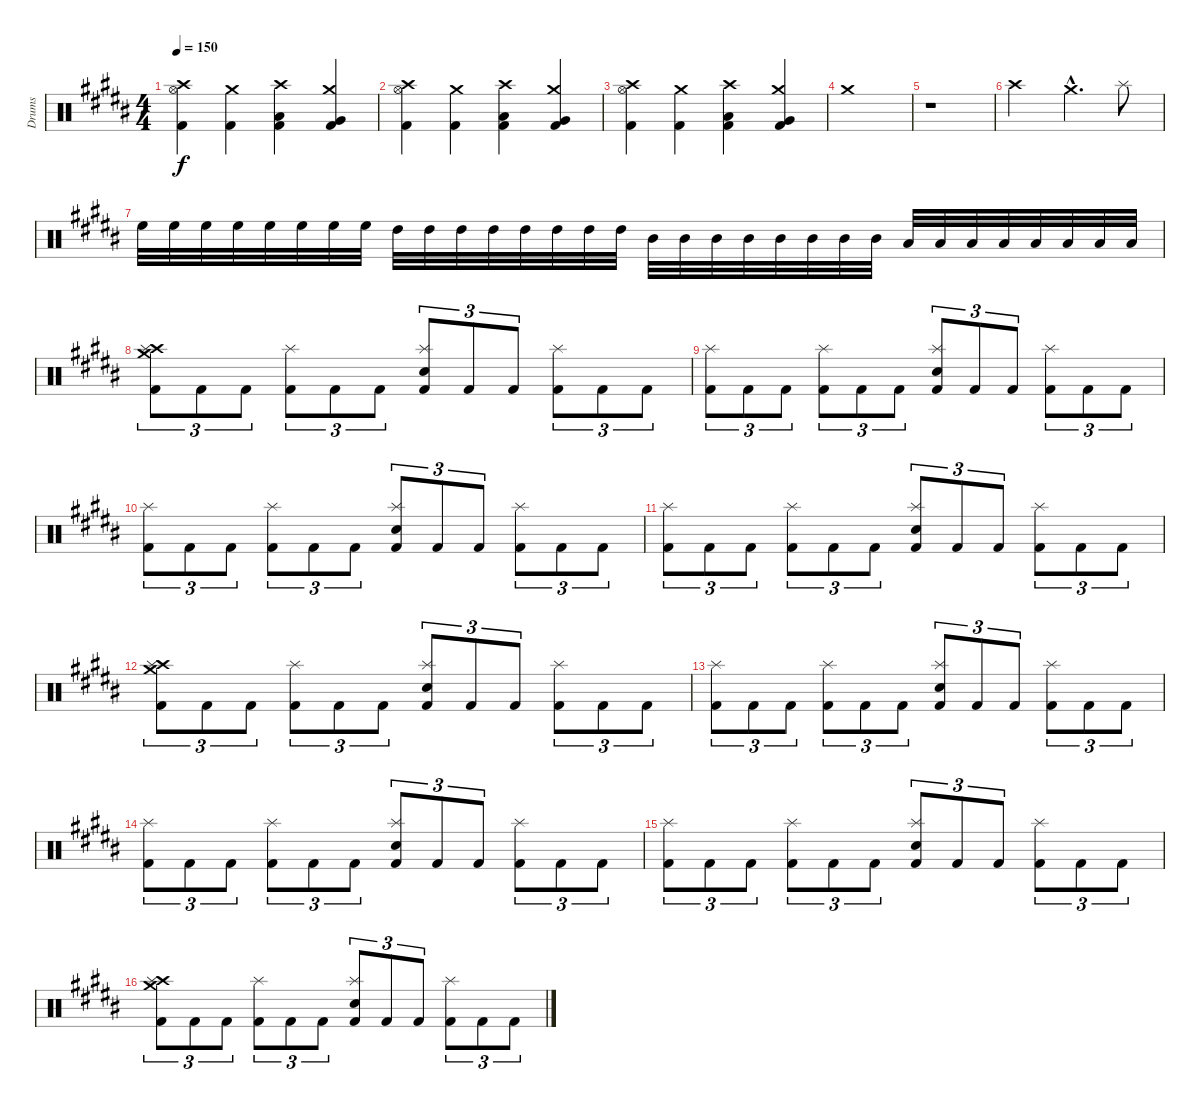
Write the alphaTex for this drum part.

\track ("Drums" "Drums") {instrument percussion}
\staff {score}
\articulation defaults
\ts (4 4)
\tempo 150
\clef neutral
\ks b
("Crash high (hit)" "Hi-Hat (open)" "Kick (hit) 2").4{dy f} ("Crash medium (hit)" "Kick (hit) 2").4 ("Crash high (hit)" "Low Tom (hit)" "Kick (hit) 2").4 ("Crash medium (hit)" "Very Low Tom (hit)" "Kick (hit) 2").4 |
("Crash high (hit)" "Hi-Hat (open)" "Kick (hit) 2").4 ("Crash medium (hit)" "Kick (hit) 2").4 ("Crash high (hit)" "Low Tom (hit)" "Kick (hit) 2").4 ("Crash medium (hit)" "Very Low Tom (hit)" "Kick (hit) 2").4 |
("Crash high (hit)" "Hi-Hat (open)" "Kick (hit) 2").4 ("Crash medium (hit)" "Kick (hit) 2").4 ("Crash high (hit)" "Low Tom (hit)" "Kick (hit) 2").4 ("Crash medium (hit)" "Very Low Tom (hit)" "Kick (hit) 2").4 |
"Crash medium (hit)".1 |
r.1 |
"Crash high (hit)".2 "Crash medium (hit)"{hac}.4{d} "Splash (hit)".8 |
"High Floor Tom (hit)".32 "High Floor Tom (hit)".32 "High Floor Tom (hit)".32 "High Floor Tom (hit)".32 "High Floor Tom (hit)".32 "High Floor Tom (hit)".32 "High Floor Tom (hit)".32 "High Floor Tom (hit)".32 "High Tom (hit)".32 "High Tom (hit)".32 "High Tom (hit)".32 "High Tom (hit)".32 "High Tom (hit)".32 "High Tom (hit)".32 "High Tom (hit)".32 "High Tom (hit)".32 "Mid Tom (hit)".32 "Mid Tom (hit)".32 "Mid Tom (hit)".32 "Mid Tom (hit)".32 "Mid Tom (hit)".32 "Mid Tom (hit)".32 "Mid Tom (hit)".32 "Mid Tom (hit)".32 "Low Tom (hit)".32 "Low Tom (hit)".32 "Low Tom (hit)".32 "Low Tom (hit)".32 "Low Tom (hit)".32 "Low Tom (hit)".32 "Low Tom (hit)".32 "Low Tom (hit)".32 |
("Kick (hit) 2" "Crash high (hit)" "Crash medium (hit)" "Splash (hit)").8{tu (3 2)} "Kick (hit) 2".8{tu (3 2)} "Kick (hit) 2".8{tu (3 2)} ("Kick (hit) 2" "Splash (hit)").8{tu (3 2)} "Kick (hit) 2".8{tu (3 2)} "Kick (hit) 2".8{tu (3 2)} ("Kick (hit) 2" "Snare (hit) 2" "Splash (hit)").8{tu (3 2)} "Kick (hit) 2".8{tu (3 2)} "Kick (hit) 2".8{tu (3 2)} ("Kick (hit) 2" "Splash (hit)").8{tu (3 2)} "Kick (hit) 2".8{tu (3 2)} "Kick (hit) 2".8{tu (3 2)} |
("Kick (hit) 2" "Splash (hit)").8{tu (3 2)} "Kick (hit) 2".8{tu (3 2)} "Kick (hit) 2".8{tu (3 2)} ("Kick (hit) 2" "Splash (hit)").8{tu (3 2)} "Kick (hit) 2".8{tu (3 2)} "Kick (hit) 2".8{tu (3 2)} ("Kick (hit) 2" "Snare (hit) 2" "Splash (hit)").8{tu (3 2)} "Kick (hit) 2".8{tu (3 2)} "Kick (hit) 2".8{tu (3 2)} ("Kick (hit) 2" "Splash (hit)").8{tu (3 2)} "Kick (hit) 2".8{tu (3 2)} "Kick (hit) 2".8{tu (3 2)} |
("Kick (hit) 2" "Splash (hit)").8{tu (3 2)} "Kick (hit) 2".8{tu (3 2)} "Kick (hit) 2".8{tu (3 2)} ("Kick (hit) 2" "Splash (hit)").8{tu (3 2)} "Kick (hit) 2".8{tu (3 2)} "Kick (hit) 2".8{tu (3 2)} ("Kick (hit) 2" "Snare (hit) 2" "Splash (hit)").8{tu (3 2)} "Kick (hit) 2".8{tu (3 2)} "Kick (hit) 2".8{tu (3 2)} ("Kick (hit) 2" "Splash (hit)").8{tu (3 2)} "Kick (hit) 2".8{tu (3 2)} "Kick (hit) 2".8{tu (3 2)} |
("Kick (hit) 2" "Splash (hit)").8{tu (3 2)} "Kick (hit) 2".8{tu (3 2)} "Kick (hit) 2".8{tu (3 2)} ("Kick (hit) 2" "Splash (hit)").8{tu (3 2)} "Kick (hit) 2".8{tu (3 2)} "Kick (hit) 2".8{tu (3 2)} ("Kick (hit) 2" "Snare (hit) 2" "Splash (hit)").8{tu (3 2)} "Kick (hit) 2".8{tu (3 2)} "Kick (hit) 2".8{tu (3 2)} ("Kick (hit) 2" "Splash (hit)").8{tu (3 2)} "Kick (hit) 2".8{tu (3 2)} "Kick (hit) 2".8{tu (3 2)} |
("Kick (hit) 2" "Crash high (hit)" "Crash medium (hit)" "Splash (hit)").8{tu (3 2)} "Kick (hit) 2".8{tu (3 2)} "Kick (hit) 2".8{tu (3 2)} ("Kick (hit) 2" "Splash (hit)").8{tu (3 2)} "Kick (hit) 2".8{tu (3 2)} "Kick (hit) 2".8{tu (3 2)} ("Kick (hit) 2" "Snare (hit) 2" "Splash (hit)").8{tu (3 2)} "Kick (hit) 2".8{tu (3 2)} "Kick (hit) 2".8{tu (3 2)} ("Kick (hit) 2" "Splash (hit)").8{tu (3 2)} "Kick (hit) 2".8{tu (3 2)} "Kick (hit) 2".8{tu (3 2)} |
("Kick (hit) 2" "Splash (hit)").8{tu (3 2)} "Kick (hit) 2".8{tu (3 2)} "Kick (hit) 2".8{tu (3 2)} ("Kick (hit) 2" "Splash (hit)").8{tu (3 2)} "Kick (hit) 2".8{tu (3 2)} "Kick (hit) 2".8{tu (3 2)} ("Kick (hit) 2" "Snare (hit) 2" "Splash (hit)").8{tu (3 2)} "Kick (hit) 2".8{tu (3 2)} "Kick (hit) 2".8{tu (3 2)} ("Kick (hit) 2" "Splash (hit)").8{tu (3 2)} "Kick (hit) 2".8{tu (3 2)} "Kick (hit) 2".8{tu (3 2)} |
("Kick (hit) 2" "Splash (hit)").8{tu (3 2)} "Kick (hit) 2".8{tu (3 2)} "Kick (hit) 2".8{tu (3 2)} ("Kick (hit) 2" "Splash (hit)").8{tu (3 2)} "Kick (hit) 2".8{tu (3 2)} "Kick (hit) 2".8{tu (3 2)} ("Kick (hit) 2" "Snare (hit) 2" "Splash (hit)").8{tu (3 2)} "Kick (hit) 2".8{tu (3 2)} "Kick (hit) 2".8{tu (3 2)} ("Kick (hit) 2" "Splash (hit)").8{tu (3 2)} "Kick (hit) 2".8{tu (3 2)} "Kick (hit) 2".8{tu (3 2)} |
("Kick (hit) 2" "Splash (hit)").8{tu (3 2)} "Kick (hit) 2".8{tu (3 2)} "Kick (hit) 2".8{tu (3 2)} ("Kick (hit) 2" "Splash (hit)").8{tu (3 2)} "Kick (hit) 2".8{tu (3 2)} "Kick (hit) 2".8{tu (3 2)} ("Kick (hit) 2" "Snare (hit) 2" "Splash (hit)").8{tu (3 2)} "Kick (hit) 2".8{tu (3 2)} "Kick (hit) 2".8{tu (3 2)} ("Kick (hit) 2" "Splash (hit)").8{tu (3 2)} "Kick (hit) 2".8{tu (3 2)} "Kick (hit) 2".8{tu (3 2)} |
("Kick (hit) 2" "Crash high (hit)" "Crash medium (hit)" "Splash (hit)").8{tu (3 2)} "Kick (hit) 2".8{tu (3 2)} "Kick (hit) 2".8{tu (3 2)} ("Kick (hit) 2" "Splash (hit)").8{tu (3 2)} "Kick (hit) 2".8{tu (3 2)} "Kick (hit) 2".8{tu (3 2)} ("Kick (hit) 2" "Snare (hit) 2" "Splash (hit)").8{tu (3 2)} "Kick (hit) 2".8{tu (3 2)} "Kick (hit) 2".8{tu (3 2)} ("Kick (hit) 2" "Splash (hit)").8{tu (3 2)} "Kick (hit) 2".8{tu (3 2)} "Kick (hit) 2".8{tu (3 2)}
